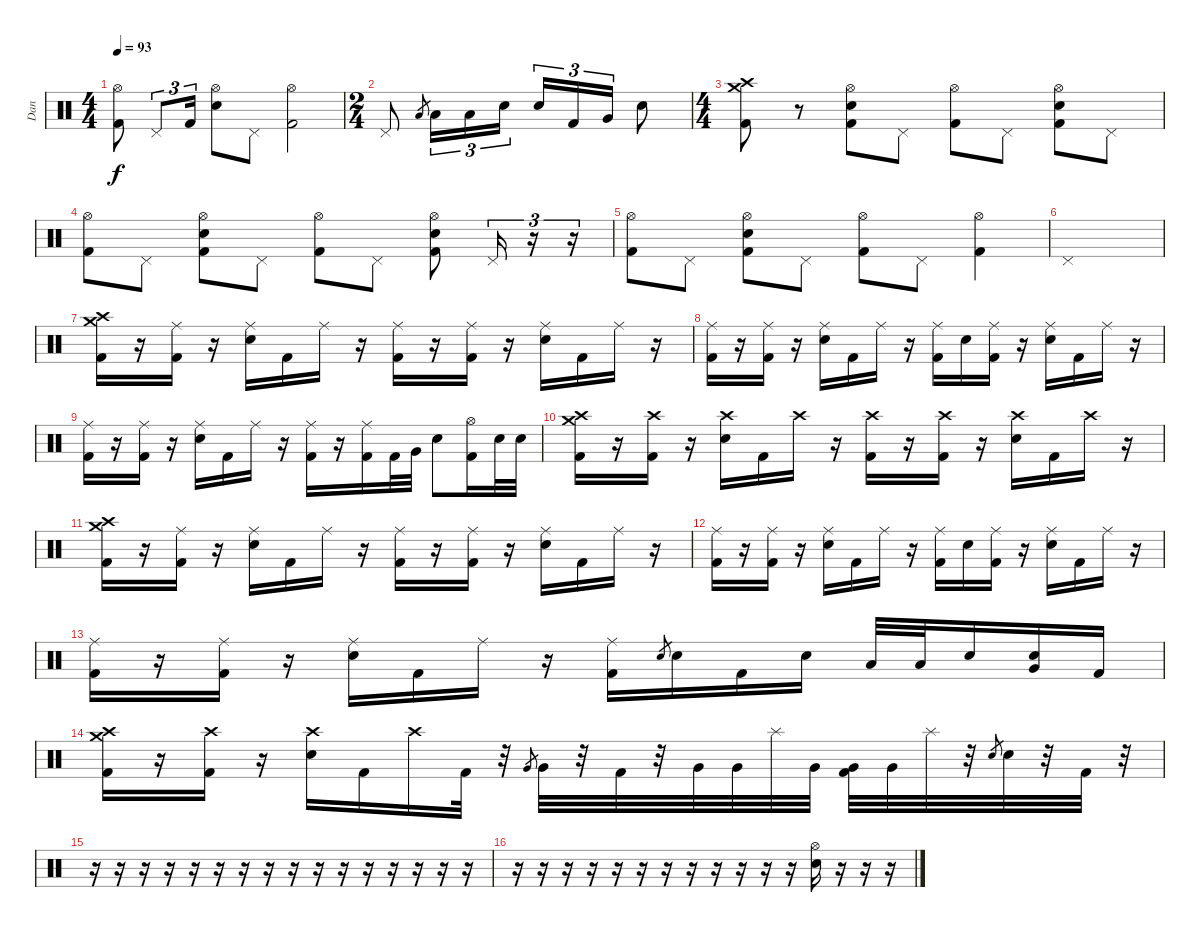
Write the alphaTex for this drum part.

\track ("Dan" "Dan") {instrument percussion}
\staff {score}
\articulation defaults
\ts (4 4)
\tempo 93
\clef neutral
\ks c
("Hi-Hat (open)" "Kick (hit) 2").8{dy f} "Pedal Hi-Hat (hit)".8{tu (3 2)} "Kick (hit) 2".16{tu (3 2)} ("Hi-Hat (open)" "Electric Snare (hit)").8 "Pedal Hi-Hat (hit)".8 ("Hi-Hat (open)" "Kick (hit) 2").2 |
\ts (2 4)
"Pedal Hi-Hat (hit)".8 "Low Tom (hit)".8{gr} "Low Tom (hit)".16{tu (3 2)} "Low Tom (hit)".16{tu (3 2)} "Electric Snare (hit)".16{tu (3 2)} "Electric Snare (hit)".16{tu (3 2)} "Kick (hit) 2".16{tu (3 2)} "Very Low Tom (hit)".16{tu (3 2)} "Electric Snare (hit)".8 |
\ts (4 4)
("Crash high (hit)" "Crash medium (hit)" "Kick (hit) 2").8 r.8 ("Hi-Hat (open)" "Electric Snare (hit)" "Kick (hit) 2").8 "Pedal Hi-Hat (hit)".8 ("Hi-Hat (open)" "Kick (hit) 2").8 "Pedal Hi-Hat (hit)".8 ("Hi-Hat (open)" "Electric Snare (hit)" "Kick (hit) 2").8 "Pedal Hi-Hat (hit)".8 |
("Hi-Hat (open)" "Kick (hit) 2").8 "Pedal Hi-Hat (hit)".8 ("Hi-Hat (open)" "Electric Snare (hit)" "Kick (hit) 2").8 "Pedal Hi-Hat (hit)".8 ("Hi-Hat (open)" "Kick (hit) 2").8 "Pedal Hi-Hat (hit)".8 ("Hi-Hat (open)" "Electric Snare (hit)" "Kick (hit) 2").8 "Pedal Hi-Hat (hit)".16{tu (3 2)} r.16{tu (3 2)} r.16{tu (3 2)} |
("Hi-Hat (open)" "Kick (hit) 2").8 "Pedal Hi-Hat (hit)".8 ("Hi-Hat (open)" "Electric Snare (hit)" "Kick (hit) 2").8 "Pedal Hi-Hat (hit)".8 ("Hi-Hat (open)" "Kick (hit) 2").8 "Pedal Hi-Hat (hit)".8 ("Hi-Hat (open)" "Kick (hit) 2").4 |
"Pedal Hi-Hat (hit)".1 |
("Crash high (hit)" "Crash medium (hit)" "Kick (hit) 2").16 r.16 ("Ride (middle)" "Kick (hit) 2").16 r.16 ("Ride (middle)" "Electric Snare (hit)").16 "Kick (hit) 2".16 "Ride (middle)".16 r.16 ("Ride (middle)" "Kick (hit) 2").16 r.16 ("Ride (middle)" "Kick (hit) 2").16 r.16 ("Ride (middle)" "Electric Snare (hit)").16 "Kick (hit) 2".16 "Ride (middle)".16 r.16 |
("Ride (middle)" "Kick (hit) 2").16 r.16 ("Ride (middle)" "Kick (hit) 2").16 r.16 ("Ride (middle)" "Electric Snare (hit)").16 "Kick (hit) 2".16 "Ride (middle)".16 r.16 ("Ride (middle)" "Kick (hit) 2").16 "Electric Snare (hit)".16 ("Ride (middle)" "Kick (hit) 2").16 r.16 ("Ride (middle)" "Electric Snare (hit)").16 "Kick (hit) 2".16 "Ride (middle)".16 r.16 |
("Ride (middle)" "Kick (hit) 2").16 r.16 ("Ride (middle)" "Kick (hit) 2").16 r.16 ("Ride (middle)" "Electric Snare (hit)").16 "Kick (hit) 2".16 "Ride (middle)".16 r.16 ("Ride (middle)" "Kick (hit) 2").16 r.16 ("Ride (middle)" "Kick (hit) 2").16 "Kick (hit) 2".32 "Very Low Tom (hit)".32 "Electric Snare (hit)".8 ("Hi-Hat (open)" "Kick (hit) 2").16 "Electric Snare (hit)".32 "Electric Snare (hit)".32 |
("Crash high (hit)" "Crash medium (hit)" "Kick (hit) 2").16 r.16 ("Crash high (hit)" "Kick (hit) 2").16 r.16 ("Crash high (hit)" "Electric Snare (hit)").16 "Kick (hit) 2".16 "Crash high (hit)".16 r.16 ("Crash high (hit)" "Kick (hit) 2").16 r.16 ("Crash high (hit)" "Kick (hit) 2").16 r.16 ("Crash high (hit)" "Electric Snare (hit)").16 "Kick (hit) 2".16 "Crash high (hit)".16 r.16 |
("Crash high (hit)" "Crash medium (hit)" "Kick (hit) 2").16 r.16 ("Ride (middle)" "Kick (hit) 2").16 r.16 ("Ride (middle)" "Electric Snare (hit)").16 "Kick (hit) 2".16 "Ride (middle)".16 r.16 ("Ride (middle)" "Kick (hit) 2").16 r.16 ("Ride (middle)" "Kick (hit) 2").16 r.16 ("Ride (middle)" "Electric Snare (hit)").16 "Kick (hit) 2".16 "Ride (middle)".16 r.16 |
("Ride (middle)" "Kick (hit) 2").16 r.16 ("Ride (middle)" "Kick (hit) 2").16 r.16 ("Ride (middle)" "Electric Snare (hit)").16 "Kick (hit) 2".16 "Ride (middle)".16 r.16 ("Ride (middle)" "Kick (hit) 2").16 "Electric Snare (hit)".16 ("Ride (middle)" "Kick (hit) 2").16 r.16 ("Ride (middle)" "Electric Snare (hit)").16 "Kick (hit) 2".16 "Ride (middle)".16 r.16 |
("Ride (middle)" "Kick (hit) 2").16 r.16 ("Ride (middle)" "Kick (hit) 2").16 r.16 ("Ride (middle)" "Electric Snare (hit)").16 "Kick (hit) 2".16 "Ride (middle)".16 r.16 ("Ride (middle)" "Kick (hit) 2").16 "Electric Snare (hit)".8{gr} "Electric Snare (hit)".16 "Kick (hit) 2".16 "Electric Snare (hit)".16 "Low Tom (hit)".32 "Low Tom (hit)".32 "Electric Snare (hit)".16 ("Electric Snare (hit)" "Very Low Tom (hit)").16 "Kick (hit) 2".16 |
("Crash high (hit)" "Crash medium (hit)" "Kick (hit) 2").16 r.16 ("Crash high (hit)" "Kick (hit) 2").16 r.16 ("Crash high (hit)" "Electric Snare (hit)").16 "Kick (hit) 2".16 "Crash high (hit)".16 "Kick (hit) 2".32 r.32 "Very Low Tom (hit)".8{gr} "Very Low Tom (hit)".32 r.32 "Kick (hit) 2".32 r.32 "Very Low Tom (hit)".32 "Very Low Tom (hit)".32 "Splash (hit)".32 "Very Low Tom (hit)".32 ("Very Low Tom (hit)" "Kick (hit) 2").32 "Very Low Tom (hit)".32 "Splash (hit)".32 r.32 "Electric Snare (hit)".8{gr} "Electric Snare (hit)".32 r.32 "Kick (hit) 2".32 r.32 |
r.16 r.16 r.16 r.16 r.16 r.16 r.16 r.16 r.16 r.16 r.16 r.16 r.16 r.16 r.16 r.16 |
r.16 r.16 r.16 r.16 r.16 r.16 r.16 r.16 r.16 r.16 r.16 r.16 ("Hi-Hat (open)" "Electric Snare (hit)").16 r.16 r.16 r.16
